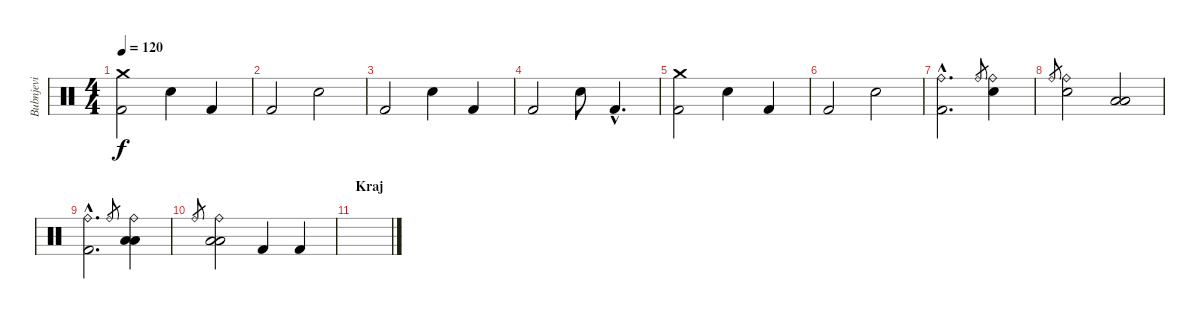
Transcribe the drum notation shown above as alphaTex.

\track ("Bubnjevi" "Bubnjevi") {instrument percussion}
\staff {score}
\articulation defaults
\ts (4 4)
\tempo 120
\clef neutral
\ks c
("Crash medium (hit)" "Kick (hit) 2").2{dy f} "Snare (hit) 2".4 "Kick (hit) 2".4 |
"Kick (hit) 2".2 "Snare (hit) 2".2 |
"Kick (hit) 2".2 "Snare (hit) 2".4 "Kick (hit) 2".4 |
"Kick (hit) 2".2 "Snare (hit) 2".8 "Kick (hit) 2"{hac}.4{d} |
("Crash medium (hit)" "Kick (hit) 2").2 "Snare (hit) 2".4 "Kick (hit) 2".4 |
"Kick (hit) 2".2 "Snare (hit) 2".2 |
("Ride (bell)"{hac} "Kick (hit) 2"{hac}).2{d} "Ride (bell)".8{gr} ("Ride (bell)" "Snare (hit) 2").4 |
"Ride (bell)".8{gr} ("Ride (bell)" "Snare (hit) 2").2 ("Low Tom (hit)" "Low Tom (hit)").2 |
("Ride (bell)"{hac} "Kick (hit) 2"{hac}).2{d} "Ride (bell)".8{gr} ("Low Tom (hit)" "Ride (bell)" "Low Tom (hit)").4 |
"Ride (bell)".8{gr} ("Low Tom (hit)" "Ride (bell)" "Low Tom (hit)").2 "Kick (hit) 2".4 "Kick (hit) 2".4 |
\section ("" "Kraj")
